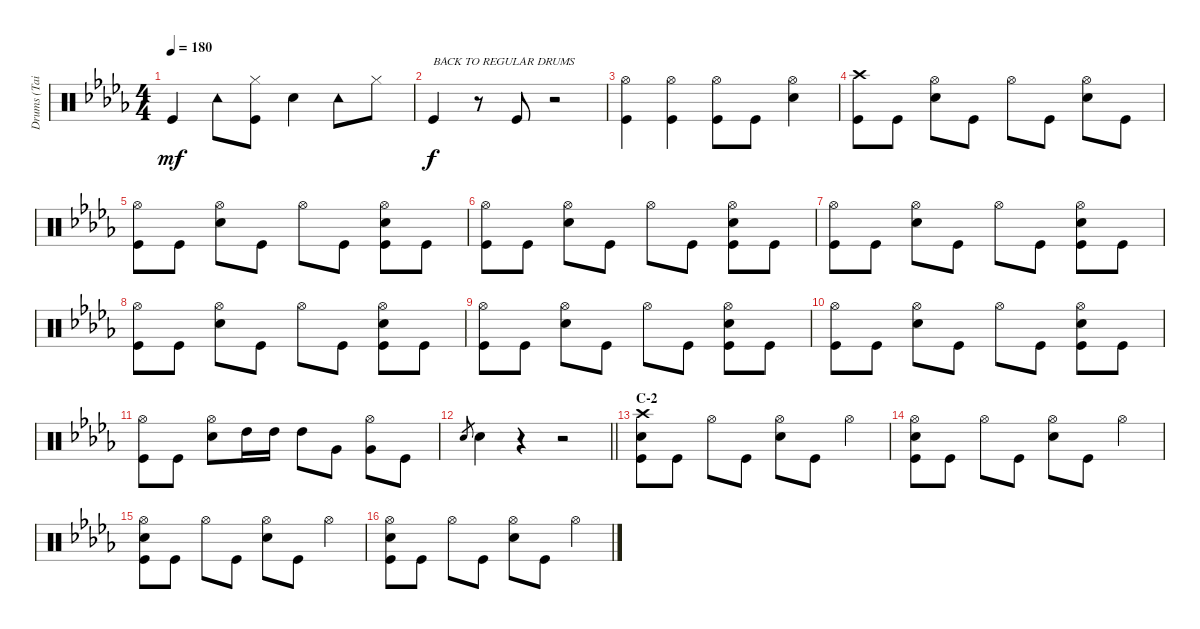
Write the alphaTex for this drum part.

\track ("Drums (Tainaka Ritsu)" "Drums (Tai") {instrument percussion}
\staff {score}
\articulation defaults
\ts (4 4)
\tempo 180
\clef neutral
\ks db "Kick (hit)".4{dy mf} "Tambourine (hit)".8
("Hi-Hat (closed)" "Kick (hit)").8 "Snare (hit) 2".4 "Tambourine (hit)".8 "Hi-Hat (closed)".8 |
"Kick (hit)".4{txt "BACK TO REGULAR DRUMS" dy f} r.8 "Kick (hit)".8 r.2 |
("Hi-Hat (open)" "Kick (hit)").4 ("Hi-Hat (open)" "Kick (hit)").4 ("Hi-Hat (open)" "Kick (hit)").8 "Kick (hit)".8 ("Hi-Hat (open)" "Snare (hit) 2").4 |
("Crash high (hit)" "Kick (hit)").8 "Kick (hit)".8 ("Hi-Hat (open)" "Snare (hit) 2").8 "Kick (hit)".8 "Hi-Hat (open)".8 "Kick (hit)".8 ("Hi-Hat (open)" "Snare (hit) 2").8 "Kick (hit)".8 |
("Hi-Hat (open)" "Kick (hit)").8 "Kick (hit)".8 ("Hi-Hat (open)" "Snare (hit) 2").8 "Kick (hit)".8 "Hi-Hat (open)".8 "Kick (hit)".8 ("Hi-Hat (open)" "Snare (hit) 2" "Kick (hit)").8 "Kick (hit)".8 |
("Hi-Hat (open)" "Kick (hit)").8 "Kick (hit)".8 ("Hi-Hat (open)" "Snare (hit) 2").8 "Kick (hit)".8 "Hi-Hat (open)".8 "Kick (hit)".8 ("Hi-Hat (open)" "Snare (hit) 2" "Kick (hit)").8 "Kick (hit)".8 |
("Hi-Hat (open)" "Kick (hit)").8 "Kick (hit)".8 ("Hi-Hat (open)" "Snare (hit) 2").8 "Kick (hit)".8 "Hi-Hat (open)".8 "Kick (hit)".8 ("Hi-Hat (open)" "Snare (hit) 2" "Kick (hit)").8 "Kick (hit)".8 |
("Hi-Hat (open)" "Kick (hit)").8 "Kick (hit)".8 ("Hi-Hat (open)" "Snare (hit) 2").8 "Kick (hit)".8 "Hi-Hat (open)".8 "Kick (hit)".8 ("Hi-Hat (open)" "Snare (hit) 2" "Kick (hit)").8 "Kick (hit)".8 |
("Hi-Hat (open)" "Kick (hit)").8 "Kick (hit)".8 ("Hi-Hat (open)" "Snare (hit) 2").8 "Kick (hit)".8 "Hi-Hat (open)".8 "Kick (hit)".8 ("Hi-Hat (open)" "Snare (hit) 2" "Kick (hit)").8 "Kick (hit)".8 |
("Hi-Hat (open)" "Kick (hit)").8 "Kick (hit)".8 ("Hi-Hat (open)" "Snare (hit) 2").8 "Kick (hit)".8 "Hi-Hat (open)".8 "Kick (hit)".8 ("Hi-Hat (open)" "Snare (hit) 2" "Kick (hit)").8 "Kick (hit)".8 |
("Hi-Hat (open)" "Kick (hit)").8 "Kick (hit)".8 ("Hi-Hat (open)" "Snare (hit) 2").8 "High Tom (hit)".16 "High Tom (hit)".16 "High Tom (hit)".8 "Very Low Tom (hit)".8 ("Hi-Hat (open)" "Very Low Tom (hit)").8 "Kick (hit)".8 |
\barLineRight lightlight "Snare (hit) 2".8{gr} "Snare (hit) 2".4
r.4 r.2 |
\section ("" "C-2")
("Crash high (hit)" "Snare (hit) 2" "Kick (hit)").8 "Kick (hit)".8 "Hi-Hat (open)".8 "Kick (hit)".8 ("Hi-Hat (open)" "Snare (hit) 2").8 "Kick (hit)".8 "Hi-Hat (open)".4 |
("Hi-Hat (open)" "Snare (hit) 2" "Kick (hit)").8 "Kick (hit)".8 "Hi-Hat (open)".8 "Kick (hit)".8 ("Hi-Hat (open)" "Snare (hit) 2").8 "Kick (hit)".8 "Hi-Hat (open)".4 |
("Hi-Hat (open)" "Snare (hit) 2" "Kick (hit)").8 "Kick (hit)".8 "Hi-Hat (open)".8 "Kick (hit)".8 ("Hi-Hat (open)" "Snare (hit) 2").8 "Kick (hit)".8 "Hi-Hat (open)".4 |
("Hi-Hat (open)" "Snare (hit) 2" "Kick (hit)").8 "Kick (hit)".8 "Hi-Hat (open)".8 "Kick (hit)".8 ("Hi-Hat (open)" "Snare (hit) 2").8 "Kick (hit)".8 "Hi-Hat (open)".4
